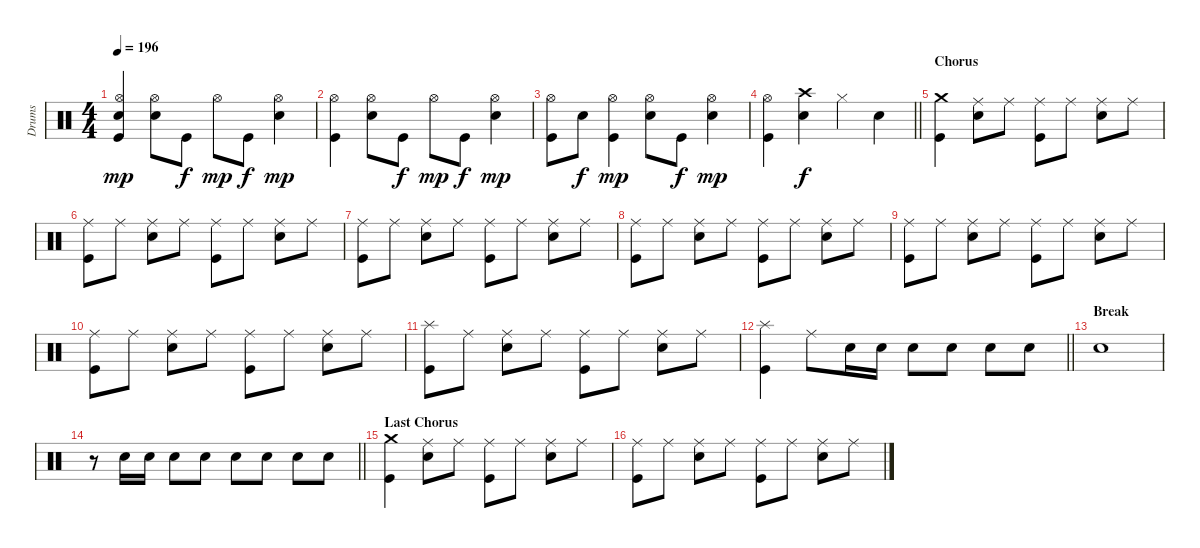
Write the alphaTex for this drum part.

\track ("Drums" "Drums") {instrument percussion}
\staff {score}
\articulation defaults
\ts (4 4)
\tempo 196
\clef neutral
\ks c
("Snare (hit)"{t} "Hi-Hat (open)" "Kick (hit)").4{dy mp} ("Hi-Hat (open)" "Electric Snare (hit)").8 "Kick (hit)".8{dy f} "Hi-Hat (open)".8{dy mp} "Kick (hit)".8{dy f} ("Hi-Hat (open)" "Electric Snare (hit)").4{dy mp} |
("Hi-Hat (open)" "Kick (hit)").4 ("Hi-Hat (open)" "Electric Snare (hit)").8 "Kick (hit)".8{dy f} "Hi-Hat (open)".8{dy mp} "Kick (hit)".8{dy f} ("Hi-Hat (open)" "Electric Snare (hit)").4{dy mp} |
("Hi-Hat (open)" "Kick (hit)").8 "Electric Snare (hit)".8{dy f} ("Hi-Hat (open)" "Kick (hit)").4{dy mp} ("Hi-Hat (open)" "Electric Snare (hit)").8 "Kick (hit)".8{dy f} ("Hi-Hat (open)" "Electric Snare (hit)").4{dy mp} |
\barLineRight lightlight
("Hi-Hat (open)" "Kick (hit)").4 ("Crash high (hit)" "Electric Snare (hit)").4{dy f} "Hi-Hat (closed)".4 "Electric Snare (hit)".4 |
\section ("" "Chorus")
("Crash medium (hit)" "Kick (hit)").4 ("Ride (middle)" "Electric Snare (hit)").8 "Ride (middle)".8 ("Ride (middle)" "Kick (hit)").8 "Ride (middle)".8 ("Ride (middle)" "Electric Snare (hit)").8 "Ride (middle)".8 |
("Ride (middle)" "Kick (hit)").8 "Ride (middle)".8 ("Ride (middle)" "Electric Snare (hit)").8 "Ride (middle)".8 ("Ride (middle)" "Kick (hit)").8 "Ride (middle)".8 ("Ride (middle)" "Electric Snare (hit)").8 "Ride (middle)".8 |
("Ride (middle)" "Kick (hit)").8 "Ride (middle)".8 ("Ride (middle)" "Electric Snare (hit)").8 "Ride (middle)".8 ("Ride (middle)" "Kick (hit)").8 "Ride (middle)".8 ("Ride (middle)" "Electric Snare (hit)").8 "Ride (middle)".8 |
("Ride (middle)" "Kick (hit)").8 "Ride (middle)".8 ("Ride (middle)" "Electric Snare (hit)").8 "Ride (middle)".8 ("Ride (middle)" "Kick (hit)").8 "Ride (middle)".8 ("Ride (middle)" "Electric Snare (hit)").8 "Ride (middle)".8 |
("Ride (middle)" "Kick (hit)").8 "Ride (middle)".8 ("Ride (middle)" "Electric Snare (hit)").8 "Ride (middle)".8 ("Ride (middle)" "Kick (hit)").8 "Ride (middle)".8 ("Ride (middle)" "Electric Snare (hit)").8 "Ride (middle)".8 |
("Ride (middle)" "Kick (hit)").8 "Ride (middle)".8 ("Ride (middle)" "Electric Snare (hit)").8 "Ride (middle)".8 ("Ride (middle)" "Kick (hit)").8 "Ride (middle)".8 ("Ride (middle)" "Electric Snare (hit)").8 "Ride (middle)".8 |
("Splash (hit)" "Kick (hit)").8 "Ride (middle)".8 ("Ride (middle)" "Electric Snare (hit)").8 "Ride (middle)".8 ("Ride (middle)" "Kick (hit)").8 "Ride (middle)".8 ("Ride (middle)" "Electric Snare (hit)").8 "Ride (middle)".8 |
\barLineRight lightlight
("Splash (hit)" "Kick (hit)").4 "Ride (middle)".8 "Electric Snare (hit)".16 "Electric Snare (hit)".16 "Electric Snare (hit)".8 "Electric Snare (hit)".8 "Electric Snare (hit)".8 "Electric Snare (hit)".8 |
\section ("" "Break")
"Electric Snare (hit)".1 |
\barLineRight lightlight
r.8 "Electric Snare (hit)".16 "Electric Snare (hit)".16 "Electric Snare (hit)".8 "Electric Snare (hit)".8 "Electric Snare (hit)".8 "Electric Snare (hit)".8 "Electric Snare (hit)".8 "Electric Snare (hit)".8 |
\section ("" "Last Chorus")
("Crash medium (hit)" "Kick (hit)").4 ("Ride (middle)" "Electric Snare (hit)").8 "Ride (middle)".8 ("Ride (middle)" "Kick (hit)").8 "Ride (middle)".8 ("Ride (middle)" "Electric Snare (hit)").8 "Ride (middle)".8 |
("Ride (middle)" "Kick (hit)").8 "Ride (middle)".8 ("Ride (middle)" "Electric Snare (hit)").8 "Ride (middle)".8 ("Ride (middle)" "Kick (hit)").8 "Ride (middle)".8 ("Ride (middle)" "Electric Snare (hit)").8 "Ride (middle)".8
